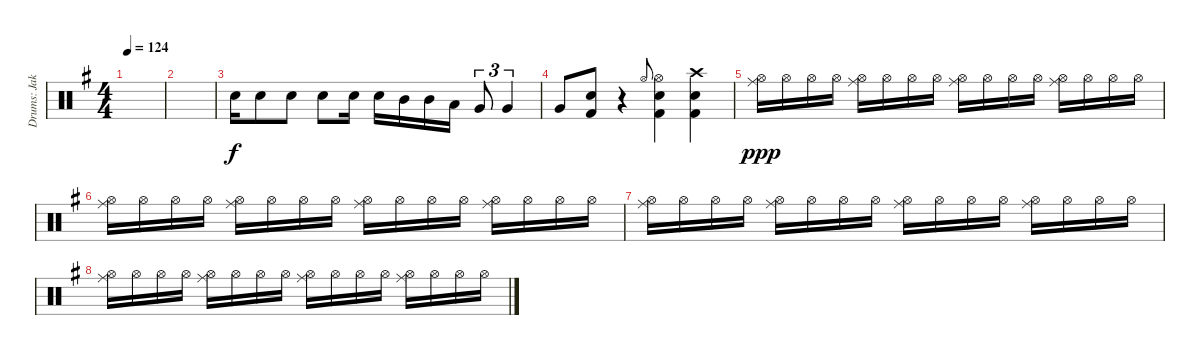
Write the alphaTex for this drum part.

\track ("Drums: Jakson" "Drums: Jak") {instrument percussion}
\staff {score}
\articulation defaults
\ts (4 4)
\tempo 124
\clef neutral
\ks g
|
|
"Electric Snare (hit)".16{dy f} "Electric Snare (hit)".8 "Electric Snare (hit)".8 "Electric Snare (hit)".8 "Electric Snare (hit)".16 "Electric Snare (hit)".16 "Mid Tom (hit)".16 "Mid Tom (hit)".16 "Low Tom (hit)".16 "Very Low Tom (hit)".8{tu (3 2)} "Very Low Tom (hit)".4{tu (3 2)} |
"Very Low Tom (hit)".8 ("Electric Snare (hit)" "Kick (hit) 2").8 r.4 "Hi-Hat (open)".8{gr onbeat} ("Hi-Hat (open)" "Electric Snare (hit)" "Kick (hit) 2").4 ("Crash high (hit)" "Electric Snare (hit)" "Kick (hit) 2").4 |
("Ride (middle)" "Hi-Hat (open)").16{dy ppp} "Hi-Hat (open)".16 "Hi-Hat (open)".16 "Hi-Hat (open)".16 ("Ride (middle)" "Hi-Hat (open)").16 "Hi-Hat (open)".16 "Hi-Hat (open)".16 "Hi-Hat (open)".16 ("Ride (middle)" "Hi-Hat (open)").16 "Hi-Hat (open)".16 "Hi-Hat (open)".16 "Hi-Hat (open)".16 ("Ride (middle)" "Hi-Hat (open)").16 "Hi-Hat (open)".16 "Hi-Hat (open)".16 "Hi-Hat (open)".16 |
("Ride (middle)" "Hi-Hat (open)").16 "Hi-Hat (open)".16 "Hi-Hat (open)".16 "Hi-Hat (open)".16 ("Ride (middle)" "Hi-Hat (open)").16 "Hi-Hat (open)".16 "Hi-Hat (open)".16 "Hi-Hat (open)".16 ("Ride (middle)" "Hi-Hat (open)").16 "Hi-Hat (open)".16 "Hi-Hat (open)".16 "Hi-Hat (open)".16 ("Ride (middle)" "Hi-Hat (open)").16 "Hi-Hat (open)".16 "Hi-Hat (open)".16 "Hi-Hat (open)".16 |
("Ride (middle)" "Hi-Hat (open)").16 "Hi-Hat (open)".16 "Hi-Hat (open)".16 "Hi-Hat (open)".16 ("Ride (middle)" "Hi-Hat (open)").16 "Hi-Hat (open)".16 "Hi-Hat (open)".16 "Hi-Hat (open)".16 ("Ride (middle)" "Hi-Hat (open)").16 "Hi-Hat (open)".16 "Hi-Hat (open)".16 "Hi-Hat (open)".16 ("Ride (middle)" "Hi-Hat (open)").16 "Hi-Hat (open)".16 "Hi-Hat (open)".16 "Hi-Hat (open)".16 |
("Ride (middle)" "Hi-Hat (open)").16 "Hi-Hat (open)".16 "Hi-Hat (open)".16 "Hi-Hat (open)".16 ("Ride (middle)" "Hi-Hat (open)").16 "Hi-Hat (open)".16 "Hi-Hat (open)".16 "Hi-Hat (open)".16 ("Ride (middle)" "Hi-Hat (open)").16 "Hi-Hat (open)".16 "Hi-Hat (open)".16 "Hi-Hat (open)".16 ("Ride (middle)" "Hi-Hat (open)").16 "Hi-Hat (open)".16 "Hi-Hat (open)".16 "Hi-Hat (open)".16
